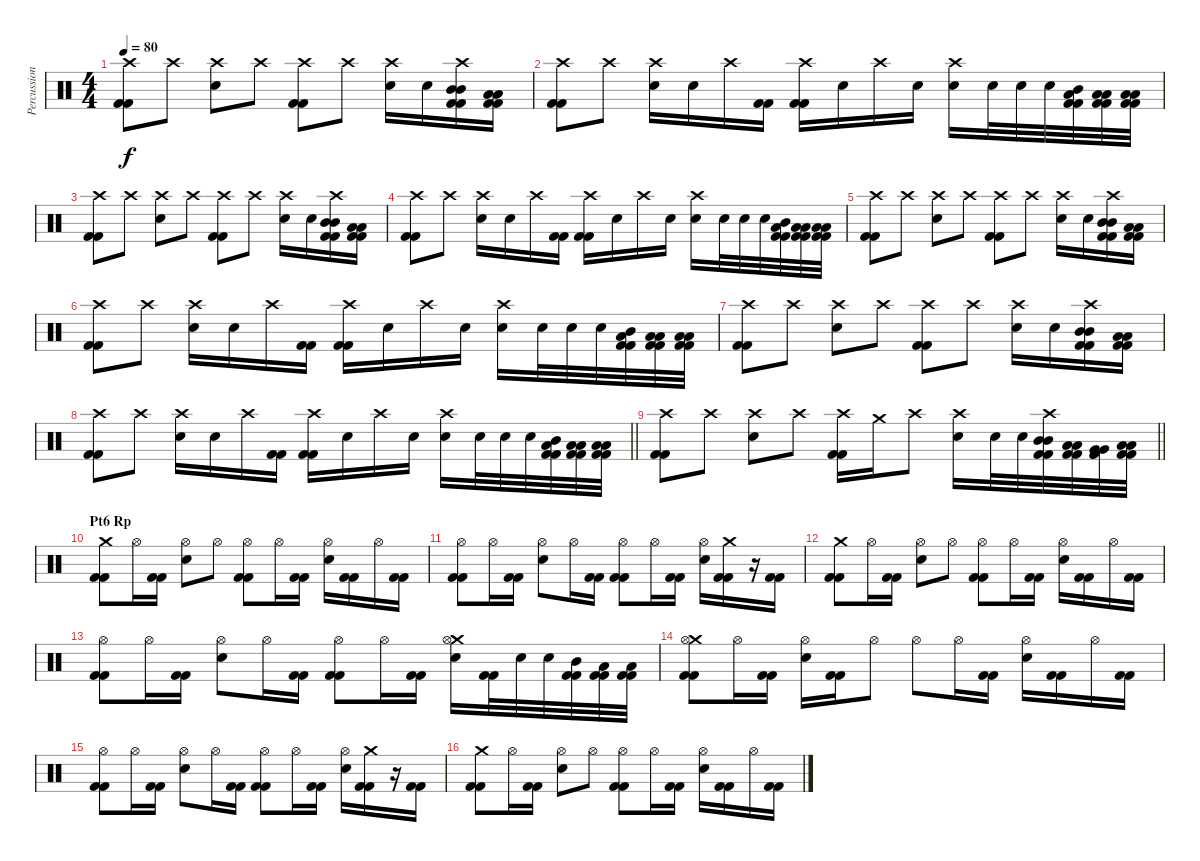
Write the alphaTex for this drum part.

\track ("Percussion" "Percussion") {instrument percussion}
\staff {score}
\articulation defaults
\ts (4 4)
\tempo 80
\clef neutral
\ks c
("Crash high (hit)" "Kick (hit) 2" "Kick (hit) 2").8{dy f} "Crash high (hit)".8 ("Crash high (hit)" "Electric Snare (hit)").8 "Crash high (hit)".8 ("Crash high (hit)" "Kick (hit) 2" "Kick (hit) 2").8 "Crash high (hit)".8 ("Crash high (hit)" "Electric Snare (hit)").16 "Electric Snare (hit)".16 ("Crash high (hit)" "Mid Tom (hit)" "Mid Tom (hit)" "Kick (hit) 2" "Kick (hit) 2").16 ("Low Tom (hit)" "Low Tom (hit)" "Kick (hit) 2" "Kick (hit) 2").16 |
("Crash high (hit)" "Kick (hit) 2" "Kick (hit) 2").8 "Crash high (hit)".8 ("Crash high (hit)" "Electric Snare (hit)").16 "Electric Snare (hit)".16 "Crash high (hit)".16 ("Kick (hit) 2" "Kick (hit) 2").16 ("Crash high (hit)" "Kick (hit) 2" "Kick (hit) 2").16 "Electric Snare (hit)".16 "Crash high (hit)".16 "Electric Snare (hit)".16 ("Crash high (hit)" "Electric Snare (hit)").16 "Electric Snare (hit)".32 "Electric Snare (hit)".32 "Electric Snare (hit)".32 ("Mid Tom (hit)" "Low Tom (hit)" "Kick (hit) 2" "Kick (hit) 2").32 ("Low Tom (hit)" "Low Tom (hit)" "Kick (hit) 2" "Kick (hit) 2").32 ("Low Tom (hit)" "Low Tom (hit)" "Kick (hit) 2" "Kick (hit) 2").32 |
("Crash high (hit)" "Kick (hit) 2" "Kick (hit) 2").8 "Crash high (hit)".8 ("Crash high (hit)" "Electric Snare (hit)").8 "Crash high (hit)".8 ("Crash high (hit)" "Kick (hit) 2" "Kick (hit) 2").8 "Crash high (hit)".8 ("Crash high (hit)" "Electric Snare (hit)").16 "Electric Snare (hit)".16 ("Crash high (hit)" "Mid Tom (hit)" "Mid Tom (hit)" "Kick (hit) 2" "Kick (hit) 2").16 ("Low Tom (hit)" "Low Tom (hit)" "Kick (hit) 2" "Kick (hit) 2").16 |
("Crash high (hit)" "Kick (hit) 2" "Kick (hit) 2").8 "Crash high (hit)".8 ("Crash high (hit)" "Electric Snare (hit)").16 "Electric Snare (hit)".16 "Crash high (hit)".16 ("Kick (hit) 2" "Kick (hit) 2").16 ("Crash high (hit)" "Kick (hit) 2" "Kick (hit) 2").16 "Electric Snare (hit)".16 "Crash high (hit)".16 "Electric Snare (hit)".16 ("Crash high (hit)" "Electric Snare (hit)").16 "Electric Snare (hit)".32 "Electric Snare (hit)".32 "Electric Snare (hit)".32 ("Mid Tom (hit)" "Low Tom (hit)" "Kick (hit) 2" "Kick (hit) 2").32 ("Low Tom (hit)" "Low Tom (hit)" "Kick (hit) 2" "Kick (hit) 2").32 ("Low Tom (hit)" "Low Tom (hit)" "Kick (hit) 2" "Kick (hit) 2").32 |
("Crash high (hit)" "Kick (hit) 2" "Kick (hit) 2").8 "Crash high (hit)".8 ("Crash high (hit)" "Electric Snare (hit)").8 "Crash high (hit)".8 ("Crash high (hit)" "Kick (hit) 2" "Kick (hit) 2").8 "Crash high (hit)".8 ("Crash high (hit)" "Electric Snare (hit)").16 "Electric Snare (hit)".16 ("Crash high (hit)" "Mid Tom (hit)" "Mid Tom (hit)" "Kick (hit) 2" "Kick (hit) 2").16 ("Low Tom (hit)" "Low Tom (hit)" "Kick (hit) 2" "Kick (hit) 2").16 |
("Crash high (hit)" "Kick (hit) 2" "Kick (hit) 2").8 "Crash high (hit)".8 ("Crash high (hit)" "Electric Snare (hit)").16 "Electric Snare (hit)".16 "Crash high (hit)".16 ("Kick (hit) 2" "Kick (hit) 2").16 ("Crash high (hit)" "Kick (hit) 2" "Kick (hit) 2").16 "Electric Snare (hit)".16 "Crash high (hit)".16 "Electric Snare (hit)".16 ("Crash high (hit)" "Electric Snare (hit)").16 "Electric Snare (hit)".32 "Electric Snare (hit)".32 "Electric Snare (hit)".32 ("Mid Tom (hit)" "Low Tom (hit)" "Kick (hit) 2" "Kick (hit) 2").32 ("Low Tom (hit)" "Low Tom (hit)" "Kick (hit) 2" "Kick (hit) 2").32 ("Low Tom (hit)" "Low Tom (hit)" "Kick (hit) 2" "Kick (hit) 2").32 |
("Crash high (hit)" "Kick (hit) 2" "Kick (hit) 2").8 "Crash high (hit)".8 ("Crash high (hit)" "Electric Snare (hit)").8 "Crash high (hit)".8 ("Crash high (hit)" "Kick (hit) 2" "Kick (hit) 2").8 "Crash high (hit)".8 ("Crash high (hit)" "Electric Snare (hit)").16 "Electric Snare (hit)".16 ("Crash high (hit)" "Mid Tom (hit)" "Mid Tom (hit)" "Kick (hit) 2" "Kick (hit) 2").16 ("Low Tom (hit)" "Low Tom (hit)" "Kick (hit) 2" "Kick (hit) 2").16 |
\barLineRight lightlight
("Crash high (hit)" "Kick (hit) 2" "Kick (hit) 2").8 "Crash high (hit)".8 ("Crash high (hit)" "Electric Snare (hit)").16 "Electric Snare (hit)".16 "Crash high (hit)".16 ("Kick (hit) 2" "Kick (hit) 2").16 ("Crash high (hit)" "Kick (hit) 2" "Kick (hit) 2").16 "Electric Snare (hit)".16 "Crash high (hit)".16 "Electric Snare (hit)".16 ("Crash high (hit)" "Electric Snare (hit)").16 "Electric Snare (hit)".32 "Electric Snare (hit)".32 "Electric Snare (hit)".32 ("Mid Tom (hit)" "Low Tom (hit)" "Kick (hit) 2" "Kick (hit) 2").32 ("Low Tom (hit)" "Low Tom (hit)" "Kick (hit) 2" "Kick (hit) 2").32 ("Low Tom (hit)" "Low Tom (hit)" "Kick (hit) 2" "Kick (hit) 2").32 |
\barLineRight lightlight
("Crash high (hit)" "Kick (hit) 2" "Kick (hit) 2").8 "Crash high (hit)".8 ("Crash high (hit)" "Electric Snare (hit)").8 "Crash high (hit)".8 ("Crash high (hit)" "Kick (hit) 2" "Kick (hit) 2").16 "Crash medium (hit)".16 "Crash high (hit)".8 ("Crash high (hit)" "Electric Snare (hit)").16 "Electric Snare (hit)".32 "Electric Snare (hit)".32 ("Crash high (hit)" "Mid Tom (hit)" "Mid Tom (hit)" "Kick (hit) 2" "Kick (hit) 2").32 ("Low Tom (hit)" "Low Tom (hit)" "Kick (hit) 2" "Kick (hit) 2").32 ("Very Low Tom (hit)" "Very Low Tom (hit)" "Kick (hit) 2" "Kick (hit) 2").32 ("Low Floor Tom (hit)" "Low Floor Tom (hit)" "Kick (hit) 2" "Kick (hit) 2").32 |
\section ("" "Pt6 Rp")
("Crash medium (hit)" "Kick (hit) 2" "Kick (hit) 2").8 "Hi-Hat (open)".16 ("Kick (hit) 2" "Kick (hit) 2").16 ("Hi-Hat (open)" "Electric Snare (hit)").8 "Hi-Hat (open)".8 ("Hi-Hat (open)" "Kick (hit) 2" "Kick (hit) 2").8 "Hi-Hat (open)".16 ("Kick (hit) 2" "Kick (hit) 2").16 ("Hi-Hat (open)" "Electric Snare (hit)").16 ("Kick (hit) 2" "Kick (hit) 2").16 "Hi-Hat (open)".16 ("Kick (hit) 2" "Kick (hit) 2").16 |
("Hi-Hat (open)" "Kick (hit) 2" "Kick (hit) 2").8 "Hi-Hat (open)".16 ("Kick (hit) 2" "Kick (hit) 2").16 ("Hi-Hat (open)" "Electric Snare (hit)").8 "Hi-Hat (open)".16 ("Kick (hit) 2" "Kick (hit) 2").16 ("Hi-Hat (open)" "Kick (hit) 2" "Kick (hit) 2").8 "Hi-Hat (open)".16 ("Kick (hit) 2" "Kick (hit) 2").16 ("Hi-Hat (open)" "Electric Snare (hit)").16 ("Crash medium (hit)" "Kick (hit) 2" "Kick (hit) 2").16 r.16 ("Kick (hit) 2" "Kick (hit) 2").16 |
("Crash medium (hit)" "Kick (hit) 2" "Kick (hit) 2").8 "Hi-Hat (open)".16 ("Kick (hit) 2" "Kick (hit) 2").16 ("Hi-Hat (open)" "Electric Snare (hit)").8 "Hi-Hat (open)".8 ("Hi-Hat (open)" "Kick (hit) 2" "Kick (hit) 2").8 "Hi-Hat (open)".16 ("Kick (hit) 2" "Kick (hit) 2").16 ("Hi-Hat (open)" "Electric Snare (hit)").16 ("Kick (hit) 2" "Kick (hit) 2").16 "Hi-Hat (open)".16 ("Kick (hit) 2" "Kick (hit) 2").16 |
("Hi-Hat (open)" "Kick (hit) 2" "Kick (hit) 2").8 "Hi-Hat (open)".16 ("Kick (hit) 2" "Kick (hit) 2").16 ("Hi-Hat (open)" "Electric Snare (hit)").8 "Hi-Hat (open)".16 ("Kick (hit) 2" "Kick (hit) 2").16 ("Hi-Hat (open)" "Kick (hit) 2" "Kick (hit) 2").8 "Hi-Hat (open)".16 ("Kick (hit) 2" "Kick (hit) 2").16 ("Crash medium (hit)" "Hi-Hat (open)" "Electric Snare (hit)").16 ("Kick (hit) 2" "Kick (hit) 2").32 "Electric Snare (hit)".32 "Electric Snare (hit)".32 ("Mid Tom (hit)" "Kick (hit) 2" "Kick (hit) 2").32 ("Low Tom (hit)" "Kick (hit) 2" "Kick (hit) 2").32 ("Low Tom (hit)" "Kick (hit) 2" "Kick (hit) 2").32 |
("Crash medium (hit)" "Hi-Hat (open)" "Kick (hit) 2" "Kick (hit) 2").8 "Hi-Hat (open)".16 ("Kick (hit) 2" "Kick (hit) 2").16 ("Hi-Hat (open)" "Electric Snare (hit)").16 ("Kick (hit) 2" "Kick (hit) 2").16 "Hi-Hat (open)".8 "Hi-Hat (open)".8 "Hi-Hat (open)".16 ("Kick (hit) 2" "Kick (hit) 2").16 ("Hi-Hat (open)" "Electric Snare (hit)").16 ("Kick (hit) 2" "Kick (hit) 2").16 "Hi-Hat (open)".16 ("Kick (hit) 2" "Kick (hit) 2").16 |
("Hi-Hat (open)" "Kick (hit) 2" "Kick (hit) 2").8 "Hi-Hat (open)".16 ("Kick (hit) 2" "Kick (hit) 2").16 ("Hi-Hat (open)" "Electric Snare (hit)").8 "Hi-Hat (open)".16 ("Kick (hit) 2" "Kick (hit) 2").16 ("Hi-Hat (open)" "Kick (hit) 2" "Kick (hit) 2").8 "Hi-Hat (open)".16 ("Kick (hit) 2" "Kick (hit) 2").16 ("Hi-Hat (open)" "Electric Snare (hit)").16 ("Crash medium (hit)" "Kick (hit) 2" "Kick (hit) 2").16 r.16 ("Kick (hit) 2" "Kick (hit) 2").16 |
("Crash medium (hit)" "Kick (hit) 2" "Kick (hit) 2").8 "Hi-Hat (open)".16 ("Kick (hit) 2" "Kick (hit) 2").16 ("Hi-Hat (open)" "Electric Snare (hit)").8 "Hi-Hat (open)".8 ("Hi-Hat (open)" "Kick (hit) 2" "Kick (hit) 2").8 "Hi-Hat (open)".16 ("Kick (hit) 2" "Kick (hit) 2").16 ("Hi-Hat (open)" "Electric Snare (hit)").16 ("Kick (hit) 2" "Kick (hit) 2").16 "Hi-Hat (open)".16 ("Kick (hit) 2" "Kick (hit) 2").16
